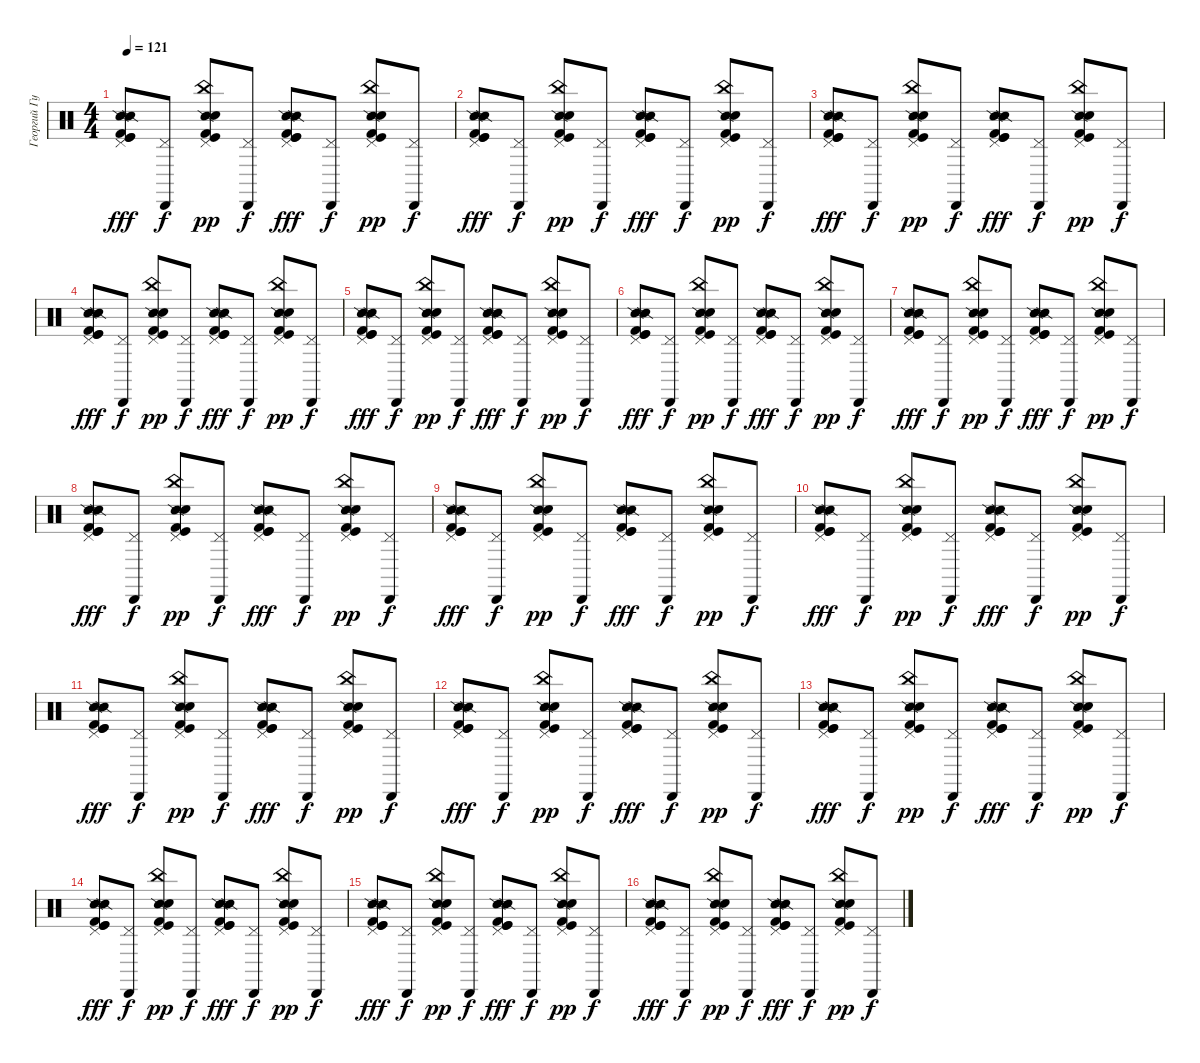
\track ("Георгий Гурьянов" "Георгий Гу") {instrument percussion}
\staff {score}
\articulation defaults
\ts (4 4)
\tempo 121
\clef neutral
\ks c
("Kick (hit)" "Kick (hit) 2" "Pedal Hi-Hat (hit)" "Snare (side stick) 2" "Snare (side stick) 2" "Kick (hit)").8{dy fff} ("Cabasa (hit)" "Pedal Hi-Hat (hit)").8{dy f} ("Kick (hit)" "Kick (hit) 2" "Pedal Hi-Hat (hit)" "Snare (side stick) 2" "Hand Clap (hit)" "China (hit)").8{dy pp} ("Cabasa (hit)" "Pedal Hi-Hat (hit)").8{dy f} ("Kick (hit)" "Kick (hit) 2" "Pedal Hi-Hat (hit)" "Snare (side stick) 2" "Snare (side stick) 2" "Kick (hit)").8{dy fff} ("Cabasa (hit)" "Pedal Hi-Hat (hit)").8{dy f} ("Kick (hit)" "Kick (hit) 2" "Pedal Hi-Hat (hit)" "Snare (side stick) 2" "Hand Clap (hit)" "China (hit)").8{dy pp} ("Cabasa (hit)" "Pedal Hi-Hat (hit)").8{dy f} |
("Kick (hit)" "Kick (hit) 2" "Pedal Hi-Hat (hit)" "Snare (side stick) 2" "Snare (side stick) 2" "Kick (hit)").8{dy fff} ("Cabasa (hit)" "Pedal Hi-Hat (hit)").8{dy f} ("Kick (hit)" "Kick (hit) 2" "Pedal Hi-Hat (hit)" "Snare (side stick) 2" "Hand Clap (hit)" "China (hit)").8{dy pp} ("Cabasa (hit)" "Pedal Hi-Hat (hit)").8{dy f} ("Kick (hit)" "Kick (hit) 2" "Pedal Hi-Hat (hit)" "Snare (side stick) 2" "Snare (side stick) 2" "Kick (hit)").8{dy fff} ("Cabasa (hit)" "Pedal Hi-Hat (hit)").8{dy f} ("Kick (hit)" "Kick (hit) 2" "Pedal Hi-Hat (hit)" "Snare (side stick) 2" "Hand Clap (hit)" "China (hit)").8{dy pp} ("Cabasa (hit)" "Pedal Hi-Hat (hit)").8{dy f} |
("Kick (hit)" "Kick (hit) 2" "Pedal Hi-Hat (hit)" "Snare (side stick) 2" "Snare (side stick) 2" "Kick (hit)").8{dy fff} ("Cabasa (hit)" "Pedal Hi-Hat (hit)").8{dy f} ("Kick (hit)" "Kick (hit) 2" "Pedal Hi-Hat (hit)" "Snare (side stick) 2" "Hand Clap (hit)" "China (hit)").8{dy pp} ("Cabasa (hit)" "Pedal Hi-Hat (hit)").8{dy f} ("Kick (hit)" "Kick (hit) 2" "Pedal Hi-Hat (hit)" "Snare (side stick) 2" "Snare (side stick) 2" "Kick (hit)").8{dy fff} ("Cabasa (hit)" "Pedal Hi-Hat (hit)").8{dy f} ("Kick (hit)" "Kick (hit) 2" "Pedal Hi-Hat (hit)" "Snare (side stick) 2" "Hand Clap (hit)" "China (hit)").8{dy pp} ("Cabasa (hit)" "Pedal Hi-Hat (hit)").8{dy f} |
("Kick (hit)" "Kick (hit) 2" "Pedal Hi-Hat (hit)" "Snare (side stick) 2" "Snare (side stick) 2" "Kick (hit)").8{dy fff} ("Cabasa (hit)" "Pedal Hi-Hat (hit)").8{dy f} ("Kick (hit)" "Kick (hit) 2" "Pedal Hi-Hat (hit)" "Snare (side stick) 2" "Hand Clap (hit)" "China (hit)").8{dy pp} ("Cabasa (hit)" "Pedal Hi-Hat (hit)").8{dy f} ("Kick (hit)" "Kick (hit) 2" "Pedal Hi-Hat (hit)" "Snare (side stick) 2" "Snare (side stick) 2" "Kick (hit)").8{dy fff} ("Cabasa (hit)" "Pedal Hi-Hat (hit)").8{dy f} ("Kick (hit)" "Kick (hit) 2" "Pedal Hi-Hat (hit)" "Snare (side stick) 2" "Hand Clap (hit)" "China (hit)").8{dy pp} ("Cabasa (hit)" "Pedal Hi-Hat (hit)").8{dy f} |
("Kick (hit)" "Kick (hit) 2" "Pedal Hi-Hat (hit)" "Snare (side stick) 2" "Snare (side stick) 2" "Kick (hit)").8{dy fff} ("Cabasa (hit)" "Pedal Hi-Hat (hit)").8{dy f} ("Kick (hit)" "Kick (hit) 2" "Pedal Hi-Hat (hit)" "Snare (side stick) 2" "Hand Clap (hit)" "China (hit)").8{dy pp} ("Cabasa (hit)" "Pedal Hi-Hat (hit)").8{dy f} ("Kick (hit)" "Kick (hit) 2" "Pedal Hi-Hat (hit)" "Snare (side stick) 2" "Snare (side stick) 2" "Kick (hit)").8{dy fff} ("Cabasa (hit)" "Pedal Hi-Hat (hit)").8{dy f} ("Kick (hit)" "Kick (hit) 2" "Pedal Hi-Hat (hit)" "Snare (side stick) 2" "Hand Clap (hit)" "China (hit)").8{dy pp} ("Cabasa (hit)" "Pedal Hi-Hat (hit)").8{dy f} |
("Kick (hit)" "Kick (hit) 2" "Pedal Hi-Hat (hit)" "Snare (side stick) 2" "Snare (side stick) 2" "Kick (hit)").8{dy fff} ("Cabasa (hit)" "Pedal Hi-Hat (hit)").8{dy f} ("Kick (hit)" "Kick (hit) 2" "Pedal Hi-Hat (hit)" "Snare (side stick) 2" "Hand Clap (hit)" "China (hit)").8{dy pp} ("Cabasa (hit)" "Pedal Hi-Hat (hit)").8{dy f} ("Kick (hit)" "Kick (hit) 2" "Pedal Hi-Hat (hit)" "Snare (side stick) 2" "Snare (side stick) 2" "Kick (hit)").8{dy fff} ("Cabasa (hit)" "Pedal Hi-Hat (hit)").8{dy f} ("Kick (hit)" "Kick (hit) 2" "Pedal Hi-Hat (hit)" "Snare (side stick) 2" "Hand Clap (hit)" "China (hit)").8{dy pp} ("Cabasa (hit)" "Pedal Hi-Hat (hit)").8{dy f} |
("Kick (hit)" "Kick (hit) 2" "Pedal Hi-Hat (hit)" "Snare (side stick) 2" "Snare (side stick) 2" "Kick (hit)").8{dy fff} ("Cabasa (hit)" "Pedal Hi-Hat (hit)").8{dy f} ("Kick (hit)" "Kick (hit) 2" "Pedal Hi-Hat (hit)" "Snare (side stick) 2" "Hand Clap (hit)" "China (hit)").8{dy pp} ("Cabasa (hit)" "Pedal Hi-Hat (hit)").8{dy f} ("Kick (hit)" "Kick (hit) 2" "Pedal Hi-Hat (hit)" "Snare (side stick) 2" "Snare (side stick) 2" "Kick (hit)").8{dy fff} ("Cabasa (hit)" "Pedal Hi-Hat (hit)").8{dy f} ("Kick (hit)" "Kick (hit) 2" "Pedal Hi-Hat (hit)" "Snare (side stick) 2" "Hand Clap (hit)" "China (hit)").8{dy pp} ("Cabasa (hit)" "Pedal Hi-Hat (hit)").8{dy f} |
("Kick (hit)" "Kick (hit) 2" "Pedal Hi-Hat (hit)" "Snare (side stick) 2" "Snare (side stick) 2" "Kick (hit)").8{dy fff} ("Cabasa (hit)" "Pedal Hi-Hat (hit)").8{dy f} ("Kick (hit)" "Kick (hit) 2" "Pedal Hi-Hat (hit)" "Snare (side stick) 2" "Hand Clap (hit)" "China (hit)").8{dy pp} ("Cabasa (hit)" "Pedal Hi-Hat (hit)").8{dy f} ("Kick (hit)" "Kick (hit) 2" "Pedal Hi-Hat (hit)" "Snare (side stick) 2" "Snare (side stick) 2" "Kick (hit)").8{dy fff} ("Cabasa (hit)" "Pedal Hi-Hat (hit)").8{dy f} ("Kick (hit)" "Kick (hit) 2" "Pedal Hi-Hat (hit)" "Snare (side stick) 2" "Hand Clap (hit)" "China (hit)").8{dy pp} ("Cabasa (hit)" "Pedal Hi-Hat (hit)").8{dy f} |
("Kick (hit)" "Kick (hit) 2" "Pedal Hi-Hat (hit)" "Snare (side stick) 2" "Snare (side stick) 2" "Kick (hit)").8{dy fff} ("Cabasa (hit)" "Pedal Hi-Hat (hit)").8{dy f} ("Kick (hit)" "Kick (hit) 2" "Pedal Hi-Hat (hit)" "Snare (side stick) 2" "Hand Clap (hit)" "China (hit)").8{dy pp} ("Cabasa (hit)" "Pedal Hi-Hat (hit)").8{dy f} ("Kick (hit)" "Kick (hit) 2" "Pedal Hi-Hat (hit)" "Snare (side stick) 2" "Snare (side stick) 2" "Kick (hit)").8{dy fff} ("Cabasa (hit)" "Pedal Hi-Hat (hit)").8{dy f} ("Kick (hit)" "Kick (hit) 2" "Pedal Hi-Hat (hit)" "Snare (side stick) 2" "Hand Clap (hit)" "China (hit)").8{dy pp} ("Cabasa (hit)" "Pedal Hi-Hat (hit)").8{dy f} |
("Kick (hit)" "Kick (hit) 2" "Pedal Hi-Hat (hit)" "Snare (side stick) 2" "Snare (side stick) 2" "Kick (hit)").8{dy fff} ("Cabasa (hit)" "Pedal Hi-Hat (hit)").8{dy f} ("Kick (hit)" "Kick (hit) 2" "Pedal Hi-Hat (hit)" "Snare (side stick) 2" "Hand Clap (hit)" "China (hit)").8{dy pp} ("Cabasa (hit)" "Pedal Hi-Hat (hit)").8{dy f} ("Kick (hit)" "Kick (hit) 2" "Pedal Hi-Hat (hit)" "Snare (side stick) 2" "Snare (side stick) 2" "Kick (hit)").8{dy fff} ("Cabasa (hit)" "Pedal Hi-Hat (hit)").8{dy f} ("Kick (hit)" "Kick (hit) 2" "Pedal Hi-Hat (hit)" "Snare (side stick) 2" "Hand Clap (hit)" "China (hit)").8{dy pp} ("Cabasa (hit)" "Pedal Hi-Hat (hit)").8{dy f} |
("Kick (hit)" "Kick (hit) 2" "Pedal Hi-Hat (hit)" "Snare (side stick) 2" "Snare (side stick) 2" "Kick (hit)").8{dy fff} ("Cabasa (hit)" "Pedal Hi-Hat (hit)").8{dy f} ("Kick (hit)" "Kick (hit) 2" "Pedal Hi-Hat (hit)" "Snare (side stick) 2" "Hand Clap (hit)" "China (hit)").8{dy pp} ("Cabasa (hit)" "Pedal Hi-Hat (hit)").8{dy f} ("Kick (hit)" "Kick (hit) 2" "Pedal Hi-Hat (hit)" "Snare (side stick) 2" "Snare (side stick) 2" "Kick (hit)").8{dy fff} ("Cabasa (hit)" "Pedal Hi-Hat (hit)").8{dy f} ("Kick (hit)" "Kick (hit) 2" "Pedal Hi-Hat (hit)" "Snare (side stick) 2" "Hand Clap (hit)" "China (hit)").8{dy pp} ("Cabasa (hit)" "Pedal Hi-Hat (hit)").8{dy f} |
("Kick (hit)" "Kick (hit) 2" "Pedal Hi-Hat (hit)" "Snare (side stick) 2" "Snare (side stick) 2" "Kick (hit)").8{dy fff} ("Cabasa (hit)" "Pedal Hi-Hat (hit)").8{dy f} ("Kick (hit)" "Kick (hit) 2" "Pedal Hi-Hat (hit)" "Snare (side stick) 2" "Hand Clap (hit)" "China (hit)").8{dy pp} ("Cabasa (hit)" "Pedal Hi-Hat (hit)").8{dy f} ("Kick (hit)" "Kick (hit) 2" "Pedal Hi-Hat (hit)" "Snare (side stick) 2" "Snare (side stick) 2" "Kick (hit)").8{dy fff} ("Cabasa (hit)" "Pedal Hi-Hat (hit)").8{dy f} ("Kick (hit)" "Kick (hit) 2" "Pedal Hi-Hat (hit)" "Snare (side stick) 2" "Hand Clap (hit)" "China (hit)").8{dy pp} ("Cabasa (hit)" "Pedal Hi-Hat (hit)").8{dy f} |
("Kick (hit)" "Kick (hit) 2" "Pedal Hi-Hat (hit)" "Snare (side stick) 2" "Snare (side stick) 2" "Kick (hit)").8{dy fff} ("Cabasa (hit)" "Pedal Hi-Hat (hit)").8{dy f} ("Kick (hit)" "Kick (hit) 2" "Pedal Hi-Hat (hit)" "Snare (side stick) 2" "Hand Clap (hit)" "China (hit)").8{dy pp} ("Cabasa (hit)" "Pedal Hi-Hat (hit)").8{dy f} ("Kick (hit)" "Kick (hit) 2" "Pedal Hi-Hat (hit)" "Snare (side stick) 2" "Snare (side stick) 2" "Kick (hit)").8{dy fff} ("Cabasa (hit)" "Pedal Hi-Hat (hit)").8{dy f} ("Kick (hit)" "Kick (hit) 2" "Pedal Hi-Hat (hit)" "Snare (side stick) 2" "Hand Clap (hit)" "China (hit)").8{dy pp} ("Cabasa (hit)" "Pedal Hi-Hat (hit)").8{dy f} |
("Kick (hit)" "Kick (hit) 2" "Pedal Hi-Hat (hit)" "Snare (side stick) 2" "Snare (side stick) 2" "Kick (hit)").8{dy fff} ("Cabasa (hit)" "Pedal Hi-Hat (hit)").8{dy f} ("Kick (hit)" "Kick (hit) 2" "Pedal Hi-Hat (hit)" "Snare (side stick) 2" "Hand Clap (hit)" "China (hit)").8{dy pp} ("Cabasa (hit)" "Pedal Hi-Hat (hit)").8{dy f} ("Kick (hit)" "Kick (hit) 2" "Pedal Hi-Hat (hit)" "Snare (side stick) 2" "Snare (side stick) 2" "Kick (hit)").8{dy fff} ("Cabasa (hit)" "Pedal Hi-Hat (hit)").8{dy f} ("Kick (hit)" "Kick (hit) 2" "Pedal Hi-Hat (hit)" "Snare (side stick) 2" "Hand Clap (hit)" "China (hit)").8{dy pp} ("Cabasa (hit)" "Pedal Hi-Hat (hit)").8{dy f} |
("Kick (hit)" "Kick (hit) 2" "Pedal Hi-Hat (hit)" "Snare (side stick) 2" "Snare (side stick) 2" "Kick (hit)").8{dy fff} ("Cabasa (hit)" "Pedal Hi-Hat (hit)").8{dy f} ("Kick (hit)" "Kick (hit) 2" "Pedal Hi-Hat (hit)" "Snare (side stick) 2" "Hand Clap (hit)" "China (hit)").8{dy pp} ("Cabasa (hit)" "Pedal Hi-Hat (hit)").8{dy f} ("Kick (hit)" "Kick (hit) 2" "Pedal Hi-Hat (hit)" "Snare (side stick) 2" "Snare (side stick) 2" "Kick (hit)").8{dy fff} ("Cabasa (hit)" "Pedal Hi-Hat (hit)").8{dy f} ("Kick (hit)" "Kick (hit) 2" "Pedal Hi-Hat (hit)" "Snare (side stick) 2" "Hand Clap (hit)" "China (hit)").8{dy pp} ("Cabasa (hit)" "Pedal Hi-Hat (hit)").8{dy f} |
("Kick (hit)" "Kick (hit) 2" "Pedal Hi-Hat (hit)" "Snare (side stick) 2" "Snare (side stick) 2" "Kick (hit)").8{dy fff} ("Cabasa (hit)" "Pedal Hi-Hat (hit)").8{dy f} ("Kick (hit)" "Kick (hit) 2" "Pedal Hi-Hat (hit)" "Snare (side stick) 2" "Hand Clap (hit)" "China (hit)").8{dy pp} ("Cabasa (hit)" "Pedal Hi-Hat (hit)").8{dy f} ("Kick (hit)" "Kick (hit) 2" "Pedal Hi-Hat (hit)" "Snare (side stick) 2" "Snare (side stick) 2" "Kick (hit)").8{dy fff} ("Cabasa (hit)" "Pedal Hi-Hat (hit)").8{dy f} ("Kick (hit)" "Kick (hit) 2" "Pedal Hi-Hat (hit)" "Snare (side stick) 2" "Hand Clap (hit)" "China (hit)").8{dy pp} ("Cabasa (hit)" "Pedal Hi-Hat (hit)").8{dy f}
